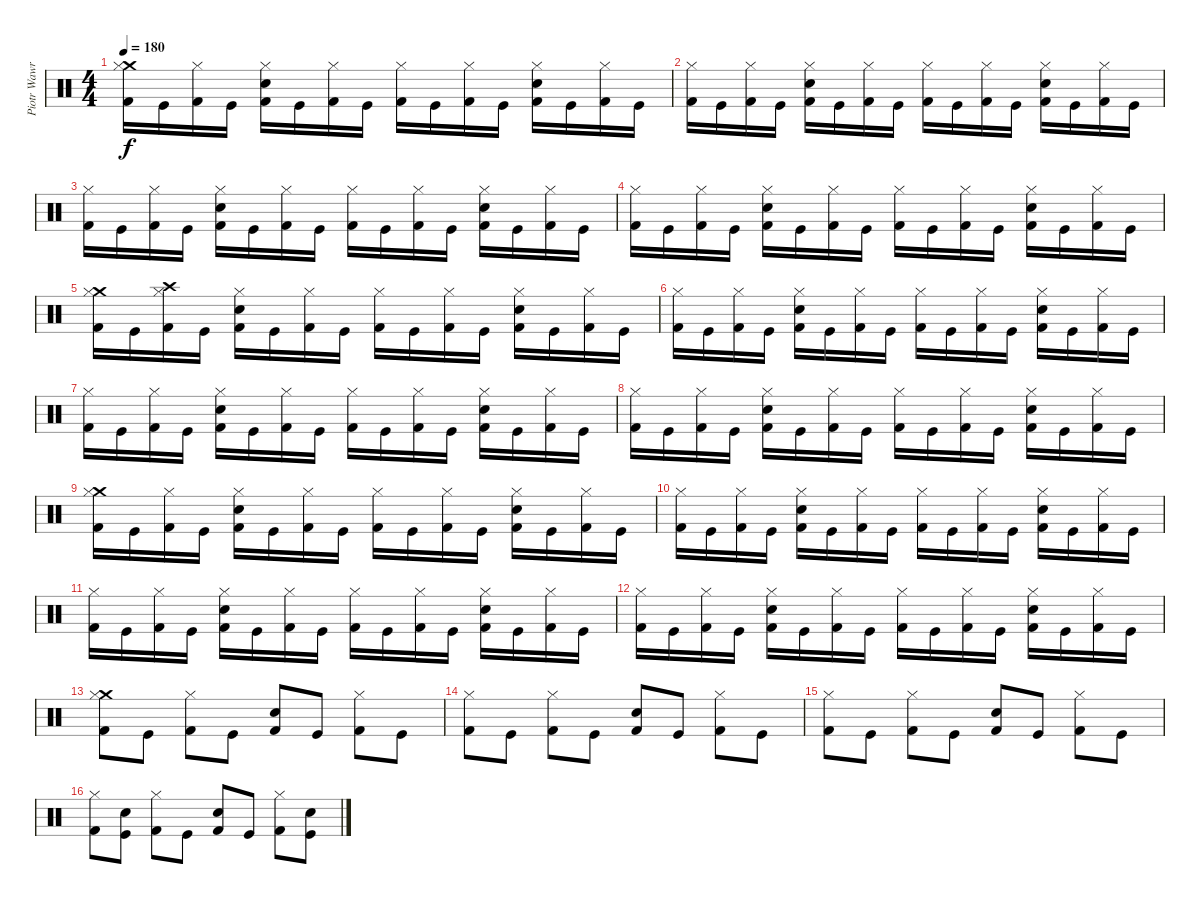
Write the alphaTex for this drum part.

\track ("Piotr Wawrzeniuk" "Piotr Wawr") {instrument percussion}
\staff {score}
\articulation defaults
\ts (4 4)
\tempo 180
\clef neutral
\ks c
("Crash medium (hit)" "Hi-Hat (closed)" "Kick (hit) 2").16{dy f} "Kick (hit)".16 ("Hi-Hat (closed)" "Kick (hit) 2").16 "Kick (hit)".16 ("Snare (hit) 2" "Hi-Hat (closed)" "Kick (hit) 2").16 "Kick (hit)".16 ("Hi-Hat (closed)" "Kick (hit) 2").16 "Kick (hit)".16 ("Hi-Hat (closed)" "Kick (hit) 2").16 "Kick (hit)".16 ("Hi-Hat (closed)" "Kick (hit) 2").16 "Kick (hit)".16 ("Snare (hit) 2" "Hi-Hat (closed)" "Kick (hit) 2").16 "Kick (hit)".16 ("Hi-Hat (closed)" "Kick (hit) 2").16 "Kick (hit)".16 |
("Hi-Hat (closed)" "Kick (hit) 2").16 "Kick (hit)".16 ("Hi-Hat (closed)" "Kick (hit) 2").16 "Kick (hit)".16 ("Snare (hit) 2" "Hi-Hat (closed)" "Kick (hit) 2").16 "Kick (hit)".16 ("Hi-Hat (closed)" "Kick (hit) 2").16 "Kick (hit)".16 ("Hi-Hat (closed)" "Kick (hit) 2").16 "Kick (hit)".16 ("Hi-Hat (closed)" "Kick (hit) 2").16 "Kick (hit)".16 ("Snare (hit) 2" "Hi-Hat (closed)" "Kick (hit) 2").16 "Kick (hit)".16 ("Hi-Hat (closed)" "Kick (hit) 2").16 "Kick (hit)".16 |
("Hi-Hat (closed)" "Kick (hit) 2").16 "Kick (hit)".16 ("Hi-Hat (closed)" "Kick (hit) 2").16 "Kick (hit)".16 ("Snare (hit) 2" "Hi-Hat (closed)" "Kick (hit) 2").16 "Kick (hit)".16 ("Hi-Hat (closed)" "Kick (hit) 2").16 "Kick (hit)".16 ("Hi-Hat (closed)" "Kick (hit) 2").16 "Kick (hit)".16 ("Hi-Hat (closed)" "Kick (hit) 2").16 "Kick (hit)".16 ("Snare (hit) 2" "Hi-Hat (closed)" "Kick (hit) 2").16 "Kick (hit)".16 ("Hi-Hat (closed)" "Kick (hit) 2").16 "Kick (hit)".16 |
("Hi-Hat (closed)" "Kick (hit) 2").16 "Kick (hit)".16 ("Hi-Hat (closed)" "Kick (hit) 2").16 "Kick (hit)".16 ("Snare (hit) 2" "Hi-Hat (closed)" "Kick (hit) 2").16 "Kick (hit)".16 ("Hi-Hat (closed)" "Kick (hit) 2").16 "Kick (hit)".16 ("Hi-Hat (closed)" "Kick (hit) 2").16 "Kick (hit)".16 ("Hi-Hat (closed)" "Kick (hit) 2").16 "Kick (hit)".16 ("Snare (hit) 2" "Hi-Hat (closed)" "Kick (hit) 2").16 "Kick (hit)".16 ("Hi-Hat (closed)" "Kick (hit) 2").16 "Kick (hit)".16 |
("Crash medium (hit)" "Hi-Hat (closed)" "Kick (hit) 2").16 "Kick (hit)".16 ("Crash high (hit)" "Hi-Hat (closed)" "Kick (hit) 2").16 "Kick (hit)".16 ("Snare (hit) 2" "Hi-Hat (closed)" "Kick (hit) 2").16 "Kick (hit)".16 ("Hi-Hat (closed)" "Kick (hit) 2").16 "Kick (hit)".16 ("Hi-Hat (closed)" "Kick (hit) 2").16 "Kick (hit)".16 ("Hi-Hat (closed)" "Kick (hit) 2").16 "Kick (hit)".16 ("Snare (hit) 2" "Hi-Hat (closed)" "Kick (hit) 2").16 "Kick (hit)".16 ("Hi-Hat (closed)" "Kick (hit) 2").16 "Kick (hit)".16 |
("Hi-Hat (closed)" "Kick (hit) 2").16 "Kick (hit)".16 ("Hi-Hat (closed)" "Kick (hit) 2").16 "Kick (hit)".16 ("Snare (hit) 2" "Hi-Hat (closed)" "Kick (hit) 2").16 "Kick (hit)".16 ("Hi-Hat (closed)" "Kick (hit) 2").16 "Kick (hit)".16 ("Hi-Hat (closed)" "Kick (hit) 2").16 "Kick (hit)".16 ("Hi-Hat (closed)" "Kick (hit) 2").16 "Kick (hit)".16 ("Snare (hit) 2" "Hi-Hat (closed)" "Kick (hit) 2").16 "Kick (hit)".16 ("Hi-Hat (closed)" "Kick (hit) 2").16 "Kick (hit)".16 |
("Hi-Hat (closed)" "Kick (hit) 2").16 "Kick (hit)".16 ("Hi-Hat (closed)" "Kick (hit) 2").16 "Kick (hit)".16 ("Snare (hit) 2" "Hi-Hat (closed)" "Kick (hit) 2").16 "Kick (hit)".16 ("Hi-Hat (closed)" "Kick (hit) 2").16 "Kick (hit)".16 ("Hi-Hat (closed)" "Kick (hit) 2").16 "Kick (hit)".16 ("Hi-Hat (closed)" "Kick (hit) 2").16 "Kick (hit)".16 ("Snare (hit) 2" "Hi-Hat (closed)" "Kick (hit) 2").16 "Kick (hit)".16 ("Hi-Hat (closed)" "Kick (hit) 2").16 "Kick (hit)".16 |
("Hi-Hat (closed)" "Kick (hit) 2").16 "Kick (hit)".16 ("Hi-Hat (closed)" "Kick (hit) 2").16 "Kick (hit)".16 ("Snare (hit) 2" "Hi-Hat (closed)" "Kick (hit) 2").16 "Kick (hit)".16 ("Hi-Hat (closed)" "Kick (hit) 2").16 "Kick (hit)".16 ("Hi-Hat (closed)" "Kick (hit) 2").16 "Kick (hit)".16 ("Hi-Hat (closed)" "Kick (hit) 2").16 "Kick (hit)".16 ("Snare (hit) 2" "Hi-Hat (closed)" "Kick (hit) 2").16 "Kick (hit)".16 ("Hi-Hat (closed)" "Kick (hit) 2").16 "Kick (hit)".16 |
("Crash medium (hit)" "Hi-Hat (closed)" "Kick (hit) 2").16 "Kick (hit)".16 ("Hi-Hat (closed)" "Kick (hit) 2").16 "Kick (hit)".16 ("Snare (hit) 2" "Hi-Hat (closed)" "Kick (hit) 2").16 "Kick (hit)".16 ("Hi-Hat (closed)" "Kick (hit) 2").16 "Kick (hit)".16 ("Hi-Hat (closed)" "Kick (hit) 2").16 "Kick (hit)".16 ("Hi-Hat (closed)" "Kick (hit) 2").16 "Kick (hit)".16 ("Snare (hit) 2" "Hi-Hat (closed)" "Kick (hit) 2").16 "Kick (hit)".16 ("Hi-Hat (closed)" "Kick (hit) 2").16 "Kick (hit)".16 |
("Hi-Hat (closed)" "Kick (hit) 2").16 "Kick (hit)".16 ("Hi-Hat (closed)" "Kick (hit) 2").16 "Kick (hit)".16 ("Snare (hit) 2" "Hi-Hat (closed)" "Kick (hit) 2").16 "Kick (hit)".16 ("Hi-Hat (closed)" "Kick (hit) 2").16 "Kick (hit)".16 ("Hi-Hat (closed)" "Kick (hit) 2").16 "Kick (hit)".16 ("Hi-Hat (closed)" "Kick (hit) 2").16 "Kick (hit)".16 ("Snare (hit) 2" "Hi-Hat (closed)" "Kick (hit) 2").16 "Kick (hit)".16 ("Hi-Hat (closed)" "Kick (hit) 2").16 "Kick (hit)".16 |
("Hi-Hat (closed)" "Kick (hit) 2").16 "Kick (hit)".16 ("Hi-Hat (closed)" "Kick (hit) 2").16 "Kick (hit)".16 ("Snare (hit) 2" "Hi-Hat (closed)" "Kick (hit) 2").16 "Kick (hit)".16 ("Hi-Hat (closed)" "Kick (hit) 2").16 "Kick (hit)".16 ("Hi-Hat (closed)" "Kick (hit) 2").16 "Kick (hit)".16 ("Hi-Hat (closed)" "Kick (hit) 2").16 "Kick (hit)".16 ("Snare (hit) 2" "Hi-Hat (closed)" "Kick (hit) 2").16 "Kick (hit)".16 ("Hi-Hat (closed)" "Kick (hit) 2").16 "Kick (hit)".16 |
("Hi-Hat (closed)" "Kick (hit) 2").16 "Kick (hit)".16 ("Hi-Hat (closed)" "Kick (hit) 2").16 "Kick (hit)".16 ("Snare (hit) 2" "Hi-Hat (closed)" "Kick (hit) 2").16 "Kick (hit)".16 ("Hi-Hat (closed)" "Kick (hit) 2").16 "Kick (hit)".16 ("Hi-Hat (closed)" "Kick (hit) 2").16 "Kick (hit)".16 ("Hi-Hat (closed)" "Kick (hit) 2").16 "Kick (hit)".16 ("Snare (hit) 2" "Hi-Hat (closed)" "Kick (hit) 2").16 "Kick (hit)".16 ("Hi-Hat (closed)" "Kick (hit) 2").16 "Kick (hit)".16 |
("Crash medium (hit)" "Hi-Hat (closed)" "Kick (hit) 2").8 "Kick (hit)".8 ("Hi-Hat (closed)" "Kick (hit) 2").8 "Kick (hit)".8 ("Snare (hit) 2" "Kick (hit) 2").8 "Kick (hit)".8 ("Hi-Hat (closed)" "Kick (hit) 2").8 "Kick (hit)".8 |
("Hi-Hat (closed)" "Kick (hit) 2").8 "Kick (hit)".8 ("Hi-Hat (closed)" "Kick (hit) 2").8 "Kick (hit)".8 ("Snare (hit) 2" "Kick (hit) 2").8 "Kick (hit)".8 ("Hi-Hat (closed)" "Kick (hit) 2").8 "Kick (hit)".8 |
("Hi-Hat (closed)" "Kick (hit) 2").8 "Kick (hit)".8 ("Hi-Hat (closed)" "Kick (hit) 2").8 "Kick (hit)".8 ("Snare (hit) 2" "Kick (hit) 2").8 "Kick (hit)".8 ("Hi-Hat (closed)" "Kick (hit) 2").8 "Kick (hit)".8 |
("Hi-Hat (closed)" "Kick (hit) 2").8 ("Snare (hit) 2" "Kick (hit)").8 ("Hi-Hat (closed)" "Kick (hit) 2").8 "Kick (hit)".8 ("Snare (hit) 2" "Kick (hit) 2").8 "Kick (hit)".8 ("Hi-Hat (closed)" "Kick (hit) 2").8 ("Snare (hit) 2" "Kick (hit)").8
